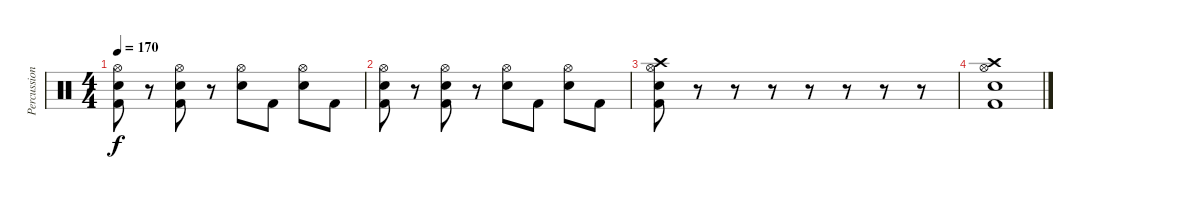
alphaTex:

\track ("Percussion" "Percussion") {instrument percussion}
\staff {score}
\articulation defaults
\ts (4 4)
\tempo 170
\clef neutral
\ks c
("Hi-Hat (open)" "Snare (hit) 2" "Kick (hit) 2").8{dy f} r.8 ("Hi-Hat (open)" "Snare (hit) 2" "Kick (hit) 2").8 r.8 ("Hi-Hat (open)" "Snare (hit) 2").8 "Kick (hit) 2".8 ("Hi-Hat (open)" "Snare (hit) 2").8 "Kick (hit) 2".8 |
("Hi-Hat (open)" "Snare (hit) 2" "Kick (hit) 2").8 r.8 ("Hi-Hat (open)" "Snare (hit) 2" "Kick (hit) 2").8 r.8 ("Hi-Hat (open)" "Snare (hit) 2").8 "Kick (hit) 2".8 ("Hi-Hat (open)" "Snare (hit) 2").8 "Kick (hit) 2".8 |
("Crash high (hit)" "Hi-Hat (open)" "Snare (hit) 2" "Kick (hit) 2").8 r.8 r.8 r.8 r.8 r.8 r.8 r.8 |
("Crash high (hit)" "Hi-Hat (open)" "Snare (hit) 2" "Kick (hit) 2").1
